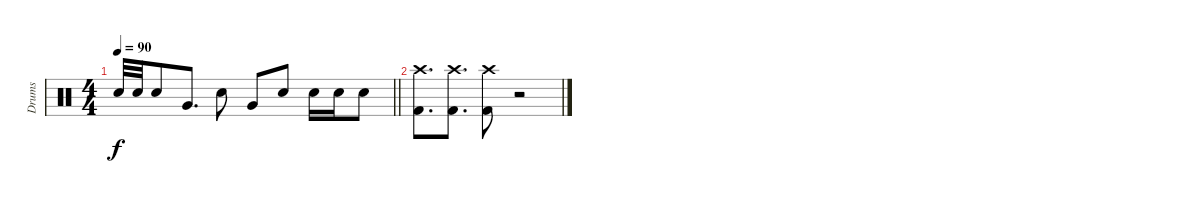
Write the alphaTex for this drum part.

\track ("Drums" "Drums") {instrument percussion}
\staff {score}
\articulation defaults
\ts (4 4)
\tempo 90
\clef neutral
\barLineRight lightlight
\ks c "Electric Snare (hit)".32{dy f} "Electric Snare (hit)".32 "Electric Snare (hit)".8 "Very Low Tom (hit)".8{d} "Electric Snare (hit)".8 "Very Low Tom (hit)".8 "Electric Snare (hit)".8 "Electric Snare (hit)".16 "Electric Snare (hit)".16 "Electric Snare (hit)".8
|
("Crash high (hit)" "Kick (hit) 2").8{d} ("Crash high (hit)" "Kick (hit) 2").8{d} ("Crash high (hit)" "Kick (hit) 2").8 r.2
